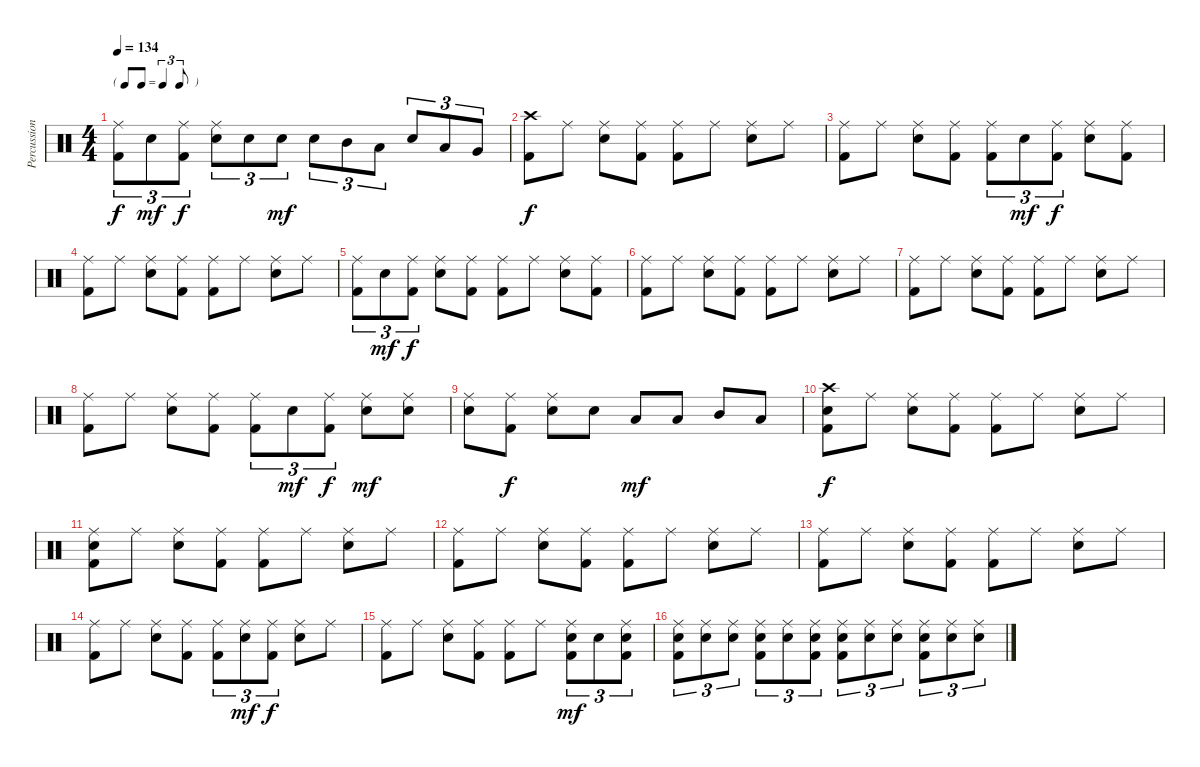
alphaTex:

\track ("Percussion" "Percussion") {instrument percussion}
\staff {score}
\articulation defaults
\ts (4 4)
\tf triplet8th
\tempo 134
\clef neutral
\ks c
("Ride (middle)" "Kick (hit) 2").8{tu (3 2) dy f} "Snare (hit) 2".8{tu (3 2) dy mf} ("Ride (middle)" "Kick (hit) 2").8{tu (3 2) dy f} ("Ride (middle)" "Snare (hit) 2").8{tu (3 2)} "Snare (hit) 2".8{tu (3 2)} "Snare (hit) 2".8{tu (3 2) dy mf} "Snare (hit) 2".8{tu (3 2)} "Mid Tom (hit)".8{tu (3 2)} "Low Tom (hit)".8{tu (3 2)} "Snare (hit) 2".8{tu (3 2)} "Low Tom (hit)".8{tu (3 2)} "Very Low Tom (hit)".8{tu (3 2)} |
("Crash high (hit)" "Kick (hit) 2").8{dy f} "Ride (middle)".8 ("Ride (middle)" "Snare (hit) 2").8 ("Ride (middle)" "Kick (hit) 2").8 ("Ride (middle)" "Kick (hit) 2").8 "Ride (middle)".8 ("Ride (middle)" "Snare (hit) 2").8 "Ride (middle)".8 |
("Ride (middle)" "Kick (hit) 2").8 "Ride (middle)".8 ("Ride (middle)" "Snare (hit) 2").8 ("Ride (middle)" "Kick (hit) 2").8 ("Ride (middle)" "Kick (hit) 2").8{tu (3 2)} "Snare (hit) 2".8{tu (3 2) dy mf} ("Ride (middle)" "Kick (hit) 2").8{tu (3 2) dy f} ("Ride (middle)" "Snare (hit) 2").8 ("Ride (middle)" "Kick (hit) 2").8 |
("Ride (middle)" "Kick (hit) 2").8 "Ride (middle)".8 ("Ride (middle)" "Snare (hit) 2").8 ("Ride (middle)" "Kick (hit) 2").8 ("Ride (middle)" "Kick (hit) 2").8 "Ride (middle)".8 ("Ride (middle)" "Snare (hit) 2").8 "Ride (middle)".8 |
("Ride (middle)" "Kick (hit) 2").8{tu (3 2)} "Snare (hit) 2".8{tu (3 2) dy mf} ("Ride (middle)" "Kick (hit) 2").8{tu (3 2) dy f} ("Ride (middle)" "Snare (hit) 2").8 ("Ride (middle)" "Kick (hit) 2").8 ("Ride (middle)" "Kick (hit) 2").8 "Ride (middle)".8 ("Ride (middle)" "Snare (hit) 2").8 ("Ride (middle)" "Kick (hit) 2").8 |
("Ride (middle)" "Kick (hit) 2").8 "Ride (middle)".8 ("Ride (middle)" "Snare (hit) 2").8 ("Ride (middle)" "Kick (hit) 2").8 ("Ride (middle)" "Kick (hit) 2").8 "Ride (middle)".8 ("Ride (middle)" "Snare (hit) 2").8 "Ride (middle)".8 |
("Ride (middle)" "Kick (hit) 2").8 "Ride (middle)".8 ("Ride (middle)" "Snare (hit) 2").8 ("Ride (middle)" "Kick (hit) 2").8 ("Ride (middle)" "Kick (hit) 2").8 "Ride (middle)".8 ("Ride (middle)" "Snare (hit) 2").8 "Ride (middle)".8 |
("Ride (middle)" "Kick (hit) 2").8 "Ride (middle)".8 ("Ride (middle)" "Snare (hit) 2").8 ("Ride (middle)" "Kick (hit) 2").8 ("Ride (middle)" "Kick (hit) 2").8{tu (3 2)} "Snare (hit) 2".8{tu (3 2) dy mf} ("Ride (middle)" "Kick (hit) 2").8{tu (3 2) dy f} ("Ride (middle)" "Snare (hit) 2").8{dy mf} ("Ride (middle)" "Snare (hit) 2").8 |
("Ride (middle)" "Snare (hit) 2").8 ("Ride (middle)" "Kick (hit) 2").8{dy f} ("Ride (middle)" "Snare (hit) 2").8 "Snare (hit) 2".8 "Low Tom (hit)".8{dy mf} "Low Tom (hit)".8 "Mid Tom (hit)".8 "Low Tom (hit)".8 |
("Crash high (hit)" "Snare (hit) 2" "Kick (hit) 2").8{dy f} "Ride (middle)".8 ("Ride (middle)" "Snare (hit) 2").8 ("Ride (middle)" "Kick (hit) 2").8 ("Ride (middle)" "Kick (hit) 2").8 "Ride (middle)".8 ("Ride (middle)" "Snare (hit) 2").8 "Ride (middle)".8 |
("Ride (middle)" "Snare (hit) 2" "Kick (hit) 2").8 "Ride (middle)".8 ("Ride (middle)" "Snare (hit) 2").8 ("Ride (middle)" "Kick (hit) 2").8 ("Ride (middle)" "Kick (hit) 2").8 "Ride (middle)".8 ("Ride (middle)" "Snare (hit) 2").8 "Ride (middle)".8 |
("Ride (middle)" "Kick (hit) 2").8 "Ride (middle)".8 ("Ride (middle)" "Snare (hit) 2").8 ("Ride (middle)" "Kick (hit) 2").8 ("Ride (middle)" "Kick (hit) 2").8 "Ride (middle)".8 ("Ride (middle)" "Snare (hit) 2").8 "Ride (middle)".8 |
("Ride (middle)" "Kick (hit) 2").8 "Ride (middle)".8 ("Ride (middle)" "Snare (hit) 2").8 ("Ride (middle)" "Kick (hit) 2").8 ("Ride (middle)" "Kick (hit) 2").8 "Ride (middle)".8 ("Ride (middle)" "Snare (hit) 2").8 "Ride (middle)".8 |
("Ride (middle)" "Kick (hit) 2").8 "Ride (middle)".8 ("Ride (middle)" "Snare (hit) 2").8 ("Ride (middle)" "Kick (hit) 2").8 ("Ride (middle)" "Kick (hit) 2").8{tu (3 2)} ("Ride (middle)" "Snare (hit) 2").8{tu (3 2) dy mf} ("Ride (middle)" "Kick (hit) 2").8{tu (3 2) dy f} ("Ride (middle)" "Snare (hit) 2").8 "Ride (middle)".8 |
("Ride (middle)" "Kick (hit) 2").8 "Ride (middle)".8 ("Ride (middle)" "Snare (hit) 2").8 ("Ride (middle)" "Kick (hit) 2").8 ("Ride (middle)" "Kick (hit) 2").8 "Ride (middle)".8 ("Ride (middle)" "Snare (hit) 2" "Kick (hit) 2").8{tu (3 2) dy mf} "Snare (hit) 2".8{tu (3 2)} ("Ride (middle)" "Snare (hit) 2" "Kick (hit) 2").8{tu (3 2)} |
("Ride (middle)" "Snare (hit) 2" "Kick (hit) 2").8{tu (3 2)} ("Ride (middle)" "Snare (hit) 2").8{tu (3 2)} ("Ride (middle)" "Snare (hit) 2").8{tu (3 2)} ("Ride (middle)" "Snare (hit) 2" "Kick (hit) 2").8{tu (3 2)} ("Ride (middle)" "Snare (hit) 2").8{tu (3 2)} ("Ride (middle)" "Snare (hit) 2" "Kick (hit) 2").8{tu (3 2)} ("Ride (middle)" "Snare (hit) 2" "Kick (hit) 2").8{tu (3 2)} ("Ride (middle)" "Snare (hit) 2").8{tu (3 2)} ("Ride (middle)" "Snare (hit) 2").8{tu (3 2)} ("Ride (middle)" "Snare (hit) 2" "Kick (hit) 2").8{tu (3 2)} ("Ride (middle)" "Snare (hit) 2").8{tu (3 2)} ("Ride (middle)" "Snare (hit) 2").8{tu (3 2)}
